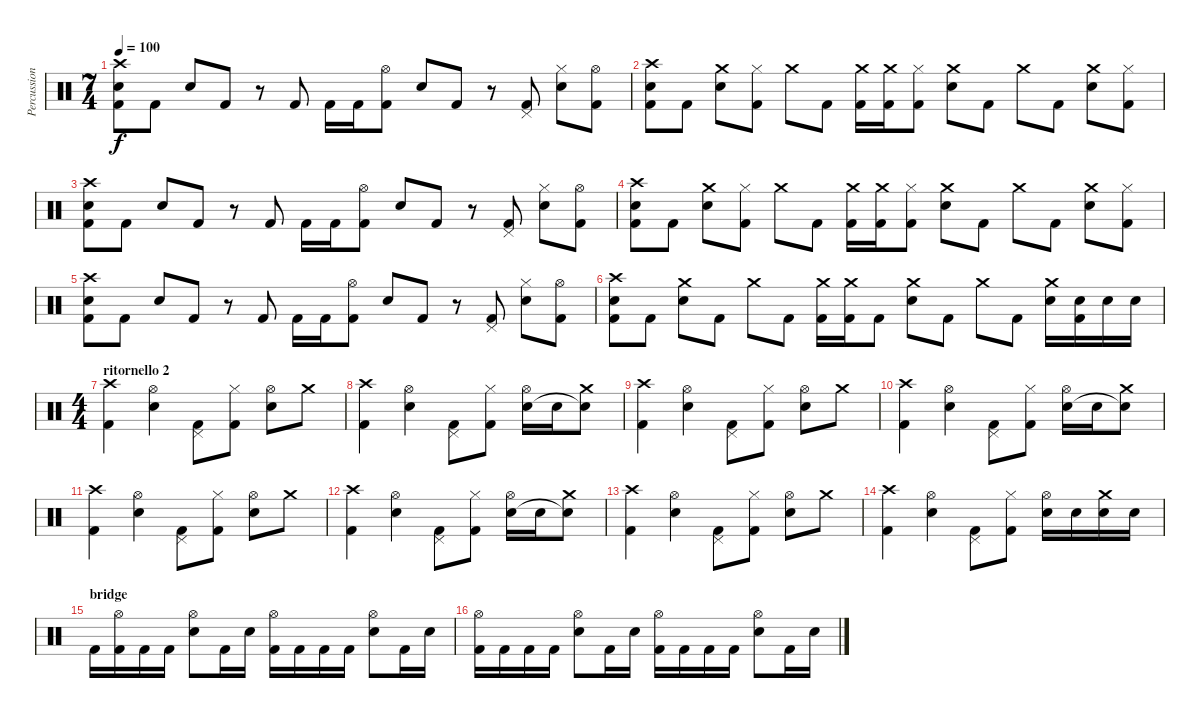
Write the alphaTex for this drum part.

\track ("Percussioni" "Percussion") {instrument percussion}
\staff {score}
\articulation defaults
\ts (7 4)
\tempo 100
\clef neutral
\ks c
("Crash high (hit)" "Snare (hit) 2" "Kick (hit) 2").8{dy f} "Kick (hit) 2".8 "Snare (hit) 2".8 "Kick (hit) 2".8 r.8 "Kick (hit) 2".8 "Kick (hit) 2".16 "Kick (hit) 2".16 ("Hi-Hat (open)" "Kick (hit) 2").8 "Snare (hit) 2".8 "Kick (hit) 2".8 r.8 ("Pedal Hi-Hat (hit)" "Kick (hit) 2").8 ("Hi-Hat (closed)" "Snare (hit) 2").8 ("Hi-Hat (open)" "Kick (hit) 2").8 |
("Crash high (hit)" "Snare (hit) 2" "Kick (hit) 2").8 "Kick (hit) 2".8 ("Crash medium (hit)" "Snare (hit) 2").8 ("Hi-Hat (closed)" "Kick (hit) 2").8 "Crash medium (hit)".8 "Kick (hit) 2".8 ("Crash medium (hit)" "Kick (hit) 2").16 ("Crash medium (hit)" "Kick (hit) 2").16 ("Hi-Hat (closed)" "Kick (hit) 2").8 ("Crash medium (hit)" "Snare (hit) 2").8 "Kick (hit) 2".8 "Crash medium (hit)".8 "Kick (hit) 2".8 ("Crash medium (hit)" "Snare (hit) 2").8 ("Hi-Hat (closed)" "Kick (hit) 2").8 |
("Crash high (hit)" "Snare (hit) 2" "Kick (hit) 2").8 "Kick (hit) 2".8 "Snare (hit) 2".8 "Kick (hit) 2".8 r.8 "Kick (hit) 2".8 "Kick (hit) 2".16 "Kick (hit) 2".16 ("Hi-Hat (open)" "Kick (hit) 2").8 "Snare (hit) 2".8 "Kick (hit) 2".8 r.8 ("Pedal Hi-Hat (hit)" "Kick (hit) 2").8 ("Hi-Hat (closed)" "Snare (hit) 2").8 ("Hi-Hat (open)" "Kick (hit) 2").8 |
("Crash high (hit)" "Snare (hit) 2" "Kick (hit) 2").8 "Kick (hit) 2".8 ("Crash medium (hit)" "Snare (hit) 2").8 ("Hi-Hat (closed)" "Kick (hit) 2").8 "Crash medium (hit)".8 "Kick (hit) 2".8 ("Crash medium (hit)" "Kick (hit) 2").16 ("Crash medium (hit)" "Kick (hit) 2").16 ("Hi-Hat (closed)" "Kick (hit) 2").8 ("Crash medium (hit)" "Snare (hit) 2").8 "Kick (hit) 2".8 "Crash medium (hit)".8 "Kick (hit) 2".8 ("Crash medium (hit)" "Snare (hit) 2").8 ("Hi-Hat (closed)" "Kick (hit) 2").8 |
("Crash high (hit)" "Snare (hit) 2" "Kick (hit) 2").8 "Kick (hit) 2".8 "Snare (hit) 2".8 "Kick (hit) 2".8 r.8 "Kick (hit) 2".8 "Kick (hit) 2".16 "Kick (hit) 2".16 ("Hi-Hat (open)" "Kick (hit) 2").8 "Snare (hit) 2".8 "Kick (hit) 2".8 r.8 ("Pedal Hi-Hat (hit)" "Kick (hit) 2").8 ("Hi-Hat (closed)" "Snare (hit) 2").8 ("Hi-Hat (open)" "Kick (hit) 2").8 |
("Crash high (hit)" "Snare (hit) 2" "Kick (hit) 2").8 "Kick (hit) 2".8 ("Crash medium (hit)" "Snare (hit) 2").8 "Kick (hit) 2".8 "Crash medium (hit)".8 "Kick (hit) 2".8 ("Crash medium (hit)" "Kick (hit) 2").16 ("Crash medium (hit)" "Kick (hit) 2").16 "Kick (hit) 2".8 ("Crash medium (hit)" "Snare (hit) 2").8 "Kick (hit) 2".8 "Crash medium (hit)".8 "Kick (hit) 2".8 ("Crash medium (hit)" "Snare (hit) 2").16 ("Snare (hit) 2" "Kick (hit) 2").16 "Snare (hit) 2".16 "Snare (hit) 2".16 |
\ts (4 4)
\section ("" "ritornello 2")
("Crash high (hit)" "Kick (hit) 2").4 ("Hi-Hat (open)" "Snare (hit) 2").4 ("Pedal Hi-Hat (hit)" "Kick (hit) 2").8 ("Hi-Hat (closed)" "Kick (hit) 2").8 ("Hi-Hat (open)" "Snare (hit) 2").8 "Crash medium (hit)".8 |
("Crash high (hit)" "Kick (hit) 2").4 ("Hi-Hat (open)" "Snare (hit) 2").4 ("Pedal Hi-Hat (hit)" "Kick (hit) 2").8 ("Hi-Hat (closed)" "Kick (hit) 2").8 ("Hi-Hat (open)" "Snare (hit) 2").16 "Snare (hit) 2".16 ("Crash medium (hit)" "Snare (hit)"{t}).8 |
("Crash high (hit)" "Kick (hit) 2").4 ("Hi-Hat (open)" "Snare (hit) 2").4 ("Pedal Hi-Hat (hit)" "Kick (hit) 2").8 ("Hi-Hat (closed)" "Kick (hit) 2").8 ("Hi-Hat (open)" "Snare (hit) 2").8 "Crash medium (hit)".8 |
("Crash high (hit)" "Kick (hit) 2").4 ("Hi-Hat (open)" "Snare (hit) 2").4 ("Pedal Hi-Hat (hit)" "Kick (hit) 2").8 ("Hi-Hat (closed)" "Kick (hit) 2").8 ("Hi-Hat (open)" "Snare (hit) 2").16 "Snare (hit) 2".16 ("Crash medium (hit)" "Snare (hit)"{t}).8 |
("Crash high (hit)" "Kick (hit) 2").4 ("Hi-Hat (open)" "Snare (hit) 2").4 ("Pedal Hi-Hat (hit)" "Kick (hit) 2").8 ("Hi-Hat (closed)" "Kick (hit) 2").8 ("Hi-Hat (open)" "Snare (hit) 2").8 "Crash medium (hit)".8 |
("Crash high (hit)" "Kick (hit) 2").4 ("Hi-Hat (open)" "Snare (hit) 2").4 ("Pedal Hi-Hat (hit)" "Kick (hit) 2").8 ("Hi-Hat (closed)" "Kick (hit) 2").8 ("Hi-Hat (open)" "Snare (hit) 2").16 "Snare (hit) 2".16 ("Crash medium (hit)" "Snare (hit)"{t}).8 |
("Crash high (hit)" "Kick (hit) 2").4 ("Hi-Hat (open)" "Snare (hit) 2").4 ("Pedal Hi-Hat (hit)" "Kick (hit) 2").8 ("Hi-Hat (closed)" "Kick (hit) 2").8 ("Hi-Hat (open)" "Snare (hit) 2").8 "Crash medium (hit)".8 |
("Crash high (hit)" "Kick (hit) 2").4 ("Hi-Hat (open)" "Snare (hit) 2").4 ("Pedal Hi-Hat (hit)" "Kick (hit) 2").8 ("Hi-Hat (closed)" "Kick (hit) 2").8 ("Hi-Hat (open)" "Snare (hit) 2").16 "Snare (hit) 2".16 ("Crash medium (hit)" "Snare (hit) 2").16 "Snare (hit) 2".16 |
\section ("" "bridge")
"Kick (hit) 2".16 ("Hi-Hat (open)" "Kick (hit) 2").16 "Kick (hit) 2".16 "Kick (hit) 2".16 ("Hi-Hat (open)" "Snare (hit) 2").8 "Kick (hit) 2".16 "Snare (hit) 2".16 ("Hi-Hat (open)" "Kick (hit) 2").16 "Kick (hit) 2".16 "Kick (hit) 2".16 "Kick (hit) 2".16 ("Hi-Hat (open)" "Snare (hit) 2").8 "Kick (hit) 2".16 "Snare (hit) 2".16 |
("Hi-Hat (open)" "Kick (hit) 2").16 "Kick (hit) 2".16 "Kick (hit) 2".16 "Kick (hit) 2".16 ("Hi-Hat (open)" "Snare (hit) 2").8 "Kick (hit) 2".16 "Snare (hit) 2".16 ("Hi-Hat (open)" "Kick (hit) 2").16 "Kick (hit) 2".16 "Kick (hit) 2".16 "Kick (hit) 2".16 ("Hi-Hat (open)" "Snare (hit) 2").8 "Kick (hit) 2".16 "Snare (hit) 2".16
